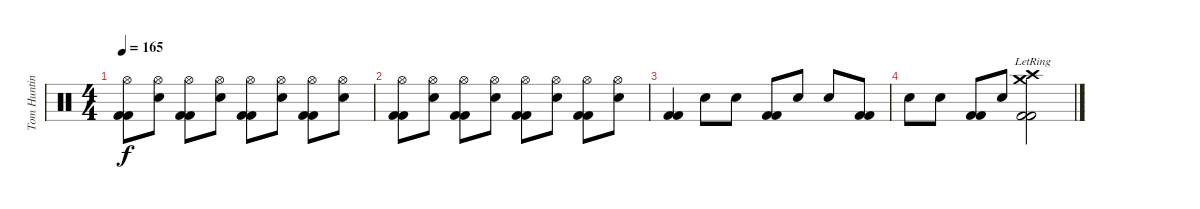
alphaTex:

\track ("Tom Hunting" "Tom Huntin") {instrument percussion}
\staff {score}
\articulation defaults
\ts (4 4)
\tempo 165
\clef neutral
\ks c
("Kick (hit) 2" "Kick (hit) 2" "Hi-Hat (open)").8{dy f} ("Electric Snare (hit)" "Hi-Hat (open)").8 ("Kick (hit) 2" "Kick (hit) 2" "Hi-Hat (open)").8 ("Electric Snare (hit)" "Hi-Hat (open)").8 ("Kick (hit) 2" "Kick (hit) 2" "Hi-Hat (open)").8 ("Electric Snare (hit)" "Hi-Hat (open)").8 ("Kick (hit) 2" "Kick (hit) 2" "Hi-Hat (open)").8 ("Electric Snare (hit)" "Hi-Hat (open)").8 |
("Kick (hit) 2" "Kick (hit) 2" "Hi-Hat (open)").8 ("Electric Snare (hit)" "Hi-Hat (open)").8 ("Kick (hit) 2" "Kick (hit) 2" "Hi-Hat (open)").8 ("Electric Snare (hit)" "Hi-Hat (open)").8 ("Kick (hit) 2" "Kick (hit) 2" "Hi-Hat (open)").8 ("Electric Snare (hit)" "Hi-Hat (open)").8 ("Kick (hit) 2" "Kick (hit) 2" "Hi-Hat (open)").8 ("Electric Snare (hit)" "Hi-Hat (open)").8 |
("Kick (hit) 2" "Kick (hit) 2").4 "Electric Snare (hit)".8 "Electric Snare (hit)".8 ("Kick (hit) 2" "Kick (hit) 2").8 "Electric Snare (hit)".8 "Electric Snare (hit)".8 ("Kick (hit) 2" "Kick (hit) 2").8 |
"Electric Snare (hit)".8 "Electric Snare (hit)".8 ("Kick (hit) 2" "Kick (hit) 2").8 "Electric Snare (hit)".8 ("Kick (hit) 2" "Kick (hit) 2" "Crash high (hit)"{lr} "Crash medium (hit)"{lr}).2
